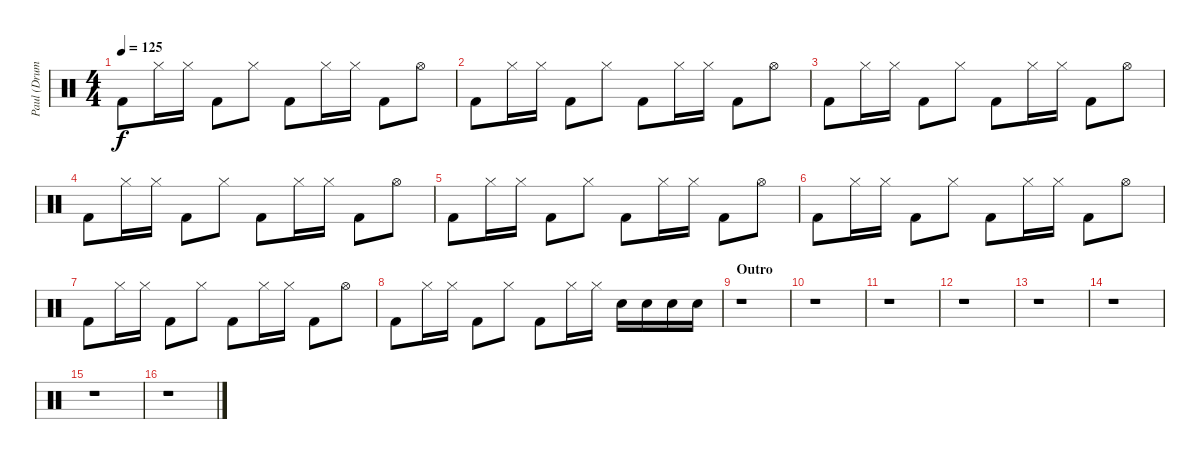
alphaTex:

\track ("Paul (Drums)" "Paul (Drum") {instrument percussion}
\staff {score}
\articulation defaults
\ts (4 4)
\tempo 125
\clef neutral
\ks c "Kick (hit) 2".8{dy f} "Hi-Hat (closed)".16 "Hi-Hat (closed)".16 "Kick (hit) 2".8 "Hi-Hat (closed)".8 "Kick (hit) 2".8 "Hi-Hat (closed)".16 "Hi-Hat (closed)".16 "Kick (hit) 2".8 "Hi-Hat (open)".8
|
"Kick (hit) 2".8 "Hi-Hat (closed)".16 "Hi-Hat (closed)".16 "Kick (hit) 2".8 "Hi-Hat (closed)".8 "Kick (hit) 2".8 "Hi-Hat (closed)".16 "Hi-Hat (closed)".16 "Kick (hit) 2".8 "Hi-Hat (open)".8 |
"Kick (hit) 2".8 "Hi-Hat (closed)".16 "Hi-Hat (closed)".16 "Kick (hit) 2".8 "Hi-Hat (closed)".8 "Kick (hit) 2".8 "Hi-Hat (closed)".16 "Hi-Hat (closed)".16 "Kick (hit) 2".8 "Hi-Hat (open)".8 |
"Kick (hit) 2".8 "Hi-Hat (closed)".16 "Hi-Hat (closed)".16 "Kick (hit) 2".8 "Hi-Hat (closed)".8 "Kick (hit) 2".8 "Hi-Hat (closed)".16 "Hi-Hat (closed)".16 "Kick (hit) 2".8 "Hi-Hat (open)".8 |
"Kick (hit) 2".8 "Hi-Hat (closed)".16 "Hi-Hat (closed)".16 "Kick (hit) 2".8 "Hi-Hat (closed)".8 "Kick (hit) 2".8 "Hi-Hat (closed)".16 "Hi-Hat (closed)".16 "Kick (hit) 2".8 "Hi-Hat (open)".8 |
"Kick (hit) 2".8 "Hi-Hat (closed)".16 "Hi-Hat (closed)".16 "Kick (hit) 2".8 "Hi-Hat (closed)".8 "Kick (hit) 2".8 "Hi-Hat (closed)".16 "Hi-Hat (closed)".16 "Kick (hit) 2".8 "Hi-Hat (open)".8 |
"Kick (hit) 2".8 "Hi-Hat (closed)".16 "Hi-Hat (closed)".16 "Kick (hit) 2".8 "Hi-Hat (closed)".8 "Kick (hit) 2".8 "Hi-Hat (closed)".16 "Hi-Hat (closed)".16 "Kick (hit) 2".8 "Hi-Hat (open)".8 |
"Kick (hit) 2".8 "Hi-Hat (closed)".16 "Hi-Hat (closed)".16 "Kick (hit) 2".8 "Hi-Hat (closed)".8 "Kick (hit) 2".8 "Hi-Hat (closed)".16 "Hi-Hat (closed)".16 "Snare (hit) 2".16 "Snare (hit) 2".16 "Snare (hit) 2".16 "Snare (hit) 2".16 |
\section ("" "Outro")
r.1 |
r.1 |
r.1 |
r.1 |
r.1 |
r.1 |
r.1 |
r.1
